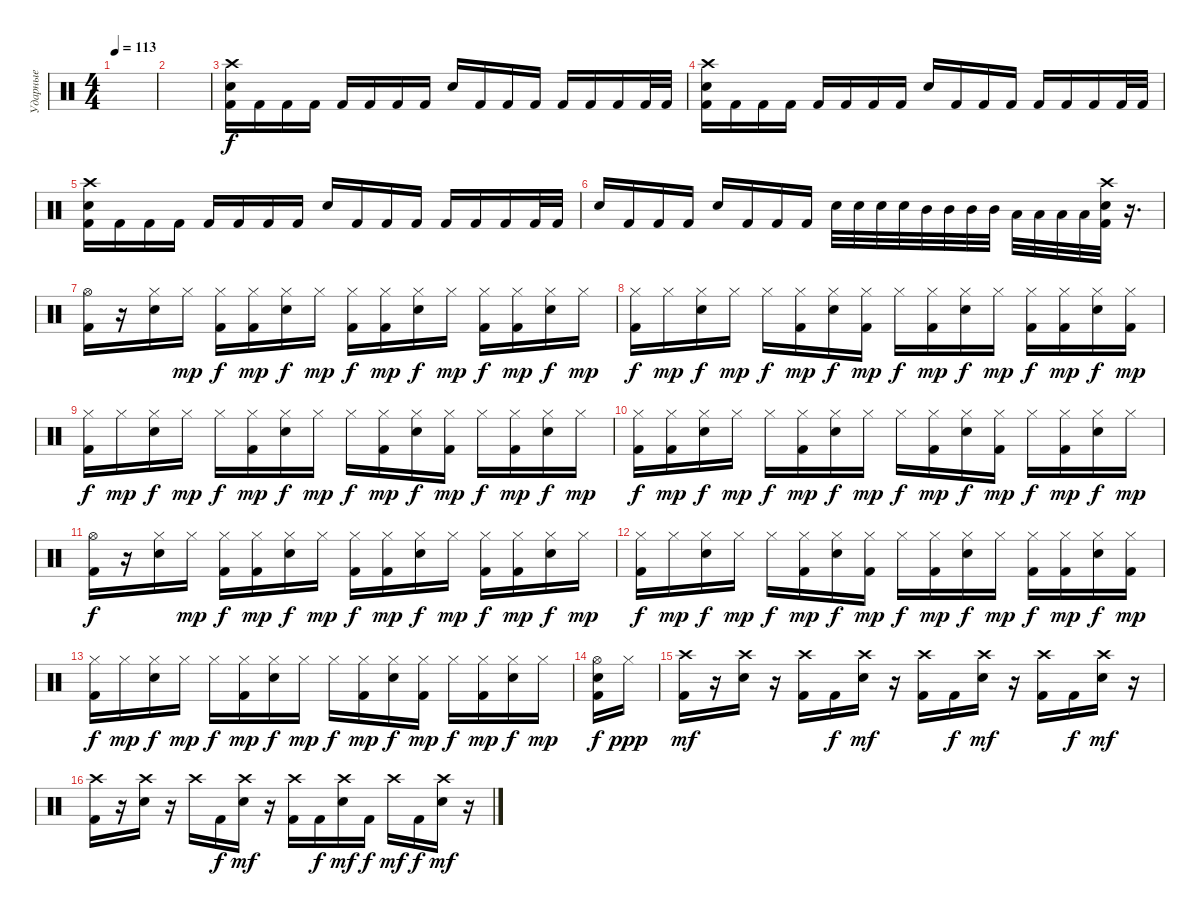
\track ("Ударные" "Ударные") {instrument percussion}
\staff {score}
\articulation defaults
\ts (4 4)
\tempo 113
\clef neutral
\ks c
|
|
("Crash high (hit)" "Electric Snare (hit)" "Kick (hit) 2").16 "Kick (hit) 2".16 "Kick (hit) 2".16 "Kick (hit) 2".16 "Kick (hit) 2".16 "Kick (hit) 2".16 "Kick (hit) 2".16 "Kick (hit) 2".16 "Electric Snare (hit)".16 "Kick (hit) 2".16 "Kick (hit) 2".16 "Kick (hit) 2".16 "Kick (hit) 2".16 "Kick (hit) 2".16 "Kick (hit) 2".16 "Kick (hit) 2".32 "Kick (hit) 2".32 |
("Crash high (hit)" "Electric Snare (hit)" "Kick (hit) 2").16 "Kick (hit) 2".16 "Kick (hit) 2".16 "Kick (hit) 2".16 "Kick (hit) 2".16 "Kick (hit) 2".16 "Kick (hit) 2".16 "Kick (hit) 2".16 "Electric Snare (hit)".16 "Kick (hit) 2".16 "Kick (hit) 2".16 "Kick (hit) 2".16 "Kick (hit) 2".16 "Kick (hit) 2".16 "Kick (hit) 2".16 "Kick (hit) 2".32 "Kick (hit) 2".32 |
("Crash high (hit)" "Electric Snare (hit)" "Kick (hit) 2").16 "Kick (hit) 2".16 "Kick (hit) 2".16 "Kick (hit) 2".16 "Kick (hit) 2".16 "Kick (hit) 2".16 "Kick (hit) 2".16 "Kick (hit) 2".16 "Electric Snare (hit)".16 "Kick (hit) 2".16 "Kick (hit) 2".16 "Kick (hit) 2".16 "Kick (hit) 2".16 "Kick (hit) 2".16 "Kick (hit) 2".16 "Kick (hit) 2".32 "Kick (hit) 2".32 |
"Electric Snare (hit)".16 "Kick (hit) 2".16 "Kick (hit) 2".16 "Kick (hit) 2".16 "Electric Snare (hit)".16 "Kick (hit) 2".16 "Kick (hit) 2".16 "Kick (hit) 2".16 "Electric Snare (hit)".32 "Electric Snare (hit)".32 "Electric Snare (hit)".32 "Electric Snare (hit)".32 "Mid Tom (hit)".32 "Mid Tom (hit)".32 "Mid Tom (hit)".32 "Mid Tom (hit)".32 "Low Tom (hit)".32 "Low Tom (hit)".32 "Low Tom (hit)".32 "Low Tom (hit)".32 ("Crash high (hit)" "Electric Snare (hit)" "Kick (hit) 2").32 r.16{d} |
("Hi-Hat (open)" "Kick (hit) 2").16 r.16 ("Hi-Hat (closed)" "Electric Snare (hit)").16 "Hi-Hat (closed)".16{dy mp} ("Hi-Hat (closed)" "Kick (hit) 2").16{dy f} ("Hi-Hat (closed)" "Kick (hit) 2").16{dy mp} ("Hi-Hat (closed)" "Electric Snare (hit)").16{dy f} "Hi-Hat (closed)".16{dy mp} ("Hi-Hat (closed)" "Kick (hit) 2").16{dy f} ("Hi-Hat (closed)" "Kick (hit) 2").16{dy mp} ("Hi-Hat (closed)" "Electric Snare (hit)").16{dy f} "Hi-Hat (closed)".16{dy mp} ("Hi-Hat (closed)" "Kick (hit) 2").16{dy f} ("Hi-Hat (closed)" "Kick (hit) 2").16{dy mp} ("Hi-Hat (closed)" "Electric Snare (hit)").16{dy f} "Hi-Hat (closed)".16{dy mp} |
("Hi-Hat (closed)" "Kick (hit) 2").16{dy f} "Hi-Hat (closed)".16{dy mp} ("Hi-Hat (closed)" "Electric Snare (hit)").16{dy f} "Hi-Hat (closed)".16{dy mp} "Hi-Hat (closed)".16{dy f} ("Hi-Hat (closed)" "Kick (hit) 2").16{dy mp} ("Hi-Hat (closed)" "Electric Snare (hit)").16{dy f} ("Hi-Hat (closed)" "Kick (hit) 2").16{dy mp} "Hi-Hat (closed)".16{dy f} ("Hi-Hat (closed)" "Kick (hit) 2").16{dy mp} ("Hi-Hat (closed)" "Electric Snare (hit)").16{dy f} "Hi-Hat (closed)".16{dy mp} ("Hi-Hat (closed)" "Kick (hit) 2").16{dy f} ("Hi-Hat (closed)" "Kick (hit) 2").16{dy mp} ("Hi-Hat (closed)" "Electric Snare (hit)").16{dy f} ("Hi-Hat (closed)" "Kick (hit) 2").16{dy mp} |
("Hi-Hat (closed)" "Kick (hit) 2").16{dy f} "Hi-Hat (closed)".16{dy mp} ("Hi-Hat (closed)" "Electric Snare (hit)").16{dy f} "Hi-Hat (closed)".16{dy mp} "Hi-Hat (closed)".16{dy f} ("Hi-Hat (closed)" "Kick (hit) 2").16{dy mp} ("Hi-Hat (closed)" "Electric Snare (hit)").16{dy f} "Hi-Hat (closed)".16{dy mp} "Hi-Hat (closed)".16{dy f} ("Hi-Hat (closed)" "Kick (hit) 2").16{dy mp} ("Hi-Hat (closed)" "Electric Snare (hit)").16{dy f} ("Hi-Hat (closed)" "Kick (hit) 2").16{dy mp} "Hi-Hat (closed)".16{dy f} ("Hi-Hat (closed)" "Kick (hit) 2").16{dy mp} ("Hi-Hat (closed)" "Electric Snare (hit)").16{dy f} "Hi-Hat (closed)".16{dy mp} |
("Hi-Hat (closed)" "Kick (hit) 2").16{dy f} ("Hi-Hat (closed)" "Kick (hit) 2").16{dy mp} ("Hi-Hat (closed)" "Electric Snare (hit)").16{dy f} "Hi-Hat (closed)".16{dy mp} "Hi-Hat (closed)".16{dy f} ("Hi-Hat (closed)" "Kick (hit) 2").16{dy mp} ("Hi-Hat (closed)" "Electric Snare (hit)").16{dy f} "Hi-Hat (closed)".16{dy mp} "Hi-Hat (closed)".16{dy f} ("Hi-Hat (closed)" "Kick (hit) 2").16{dy mp} ("Hi-Hat (closed)" "Electric Snare (hit)").16{dy f} ("Hi-Hat (closed)" "Kick (hit) 2").16{dy mp} "Hi-Hat (closed)".16{dy f} ("Hi-Hat (closed)" "Kick (hit) 2").16{dy mp} ("Hi-Hat (closed)" "Electric Snare (hit)").16{dy f} "Hi-Hat (closed)".16{dy mp} |
("Hi-Hat (open)" "Kick (hit) 2").16{dy f} r.16 ("Hi-Hat (closed)" "Electric Snare (hit)").16 "Hi-Hat (closed)".16{dy mp} ("Hi-Hat (closed)" "Kick (hit) 2").16{dy f} ("Hi-Hat (closed)" "Kick (hit) 2").16{dy mp} ("Hi-Hat (closed)" "Electric Snare (hit)").16{dy f} "Hi-Hat (closed)".16{dy mp} ("Hi-Hat (closed)" "Kick (hit) 2").16{dy f} ("Hi-Hat (closed)" "Kick (hit) 2").16{dy mp} ("Hi-Hat (closed)" "Electric Snare (hit)").16{dy f} "Hi-Hat (closed)".16{dy mp} ("Hi-Hat (closed)" "Kick (hit) 2").16{dy f} ("Hi-Hat (closed)" "Kick (hit) 2").16{dy mp} ("Hi-Hat (closed)" "Electric Snare (hit)").16{dy f} "Hi-Hat (closed)".16{dy mp} |
("Hi-Hat (closed)" "Kick (hit) 2").16{dy f} "Hi-Hat (closed)".16{dy mp} ("Hi-Hat (closed)" "Electric Snare (hit)").16{dy f} "Hi-Hat (closed)".16{dy mp} "Hi-Hat (closed)".16{dy f} ("Hi-Hat (closed)" "Kick (hit) 2").16{dy mp} ("Hi-Hat (closed)" "Electric Snare (hit)").16{dy f} ("Hi-Hat (closed)" "Kick (hit) 2").16{dy mp} "Hi-Hat (closed)".16{dy f} ("Hi-Hat (closed)" "Kick (hit) 2").16{dy mp} ("Hi-Hat (closed)" "Electric Snare (hit)").16{dy f} "Hi-Hat (closed)".16{dy mp} ("Hi-Hat (closed)" "Kick (hit) 2").16{dy f} ("Hi-Hat (closed)" "Kick (hit) 2").16{dy mp} ("Hi-Hat (closed)" "Electric Snare (hit)").16{dy f} ("Hi-Hat (closed)" "Kick (hit) 2").16{dy mp} |
("Hi-Hat (closed)" "Kick (hit) 2").16{dy f} "Hi-Hat (closed)".16{dy mp} ("Hi-Hat (closed)" "Electric Snare (hit)").16{dy f} "Hi-Hat (closed)".16{dy mp} "Hi-Hat (closed)".16{dy f} ("Hi-Hat (closed)" "Kick (hit) 2").16{dy mp} ("Hi-Hat (closed)" "Electric Snare (hit)").16{dy f} "Hi-Hat (closed)".16{dy mp} "Hi-Hat (closed)".16{dy f} ("Hi-Hat (closed)" "Kick (hit) 2").16{dy mp} ("Hi-Hat (closed)" "Electric Snare (hit)").16{dy f} ("Hi-Hat (closed)" "Kick (hit) 2").16{dy mp} "Hi-Hat (closed)".16{dy f} ("Hi-Hat (closed)" "Kick (hit) 2").16{dy mp} ("Hi-Hat (closed)" "Electric Snare (hit)").16{dy f} "Hi-Hat (closed)".16{dy mp} |
("Hi-Hat (open)" "Electric Snare (hit)" "Kick (hit) 2").16{dy f} "Hi-Hat (closed)".16{dy ppp} |
("Crash high (hit)" "Kick (hit) 2").16{dy mf} r.16 ("Crash high (hit)" "Electric Snare (hit)").16 r.16 ("Crash high (hit)" "Kick (hit) 2").16 "Kick (hit) 2".16{dy f} ("Crash high (hit)" "Electric Snare (hit)").16{dy mf} r.16 ("Crash high (hit)" "Kick (hit) 2").16 "Kick (hit) 2".16{dy f} ("Crash high (hit)" "Electric Snare (hit)").16{dy mf} r.16 ("Crash high (hit)" "Kick (hit) 2").16 "Kick (hit) 2".16{dy f} ("Crash high (hit)" "Electric Snare (hit)").16{dy mf} r.16 |
("Crash high (hit)" "Kick (hit) 2").16 r.16 ("Crash high (hit)" "Electric Snare (hit)").16 r.16 "Crash high (hit)".16 "Kick (hit) 2".16{dy f} ("Crash high (hit)" "Electric Snare (hit)").16{dy mf} r.16 ("Crash high (hit)" "Kick (hit) 2").16 "Kick (hit) 2".16{dy f} ("Crash high (hit)" "Electric Snare (hit)").16{dy mf} "Kick (hit) 2".16{dy f} "Crash high (hit)".16{dy mf} "Kick (hit) 2".16{dy f} ("Crash high (hit)" "Electric Snare (hit)").16{dy mf} r.16
